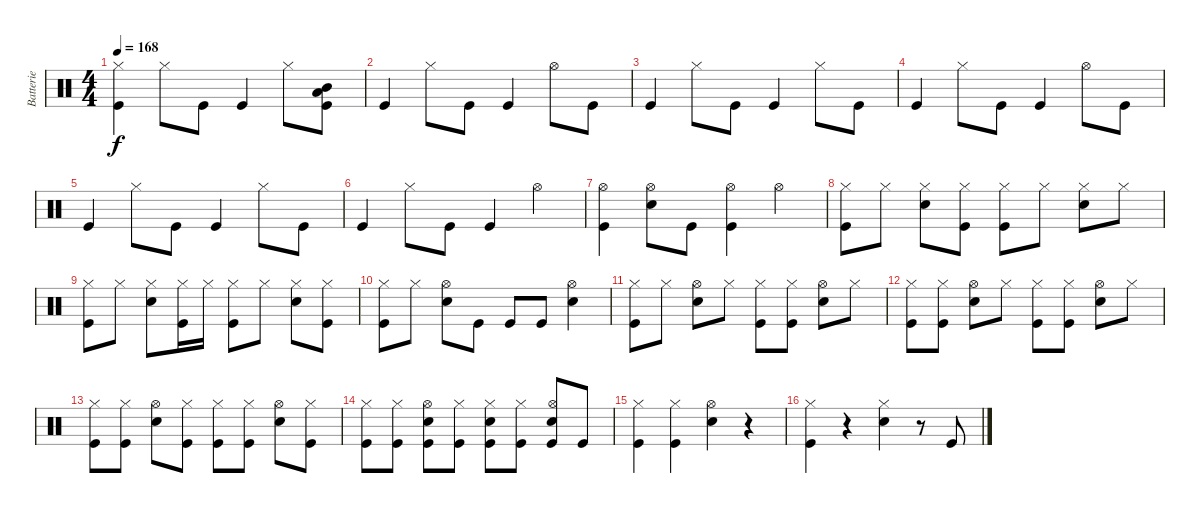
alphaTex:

\track ("Batterie" "Batterie") {instrument percussion}
\staff {score}
\articulation defaults
\ts (4 4)
\tempo 168
\clef neutral
\ks c
("Hi-Hat (closed)" "Kick (hit)").4{dy f} "Hi-Hat (closed)".8 "Kick (hit)".8 "Kick (hit)".4 "Hi-Hat (closed)".8 ("Low Tom (hit)" "Mid Tom (hit)" "Kick (hit)").8 |
"Kick (hit)".4 "Hi-Hat (closed)".8 "Kick (hit)".8 "Kick (hit)".4 "Hi-Hat (open)".8 "Kick (hit)".8 |
"Kick (hit)".4 "Hi-Hat (closed)".8 "Kick (hit)".8 "Kick (hit)".4 "Hi-Hat (closed)".8 "Kick (hit)".8 |
"Kick (hit)".4 "Hi-Hat (closed)".8 "Kick (hit)".8 "Kick (hit)".4 "Hi-Hat (open)".8 "Kick (hit)".8 |
"Kick (hit)".4 "Hi-Hat (closed)".8 "Kick (hit)".8 "Kick (hit)".4 "Hi-Hat (closed)".8 "Kick (hit)".8 |
"Kick (hit)".4 "Hi-Hat (closed)".8 "Kick (hit)".8 "Kick (hit)".4 "Hi-Hat (open)".4 |
("Hi-Hat (open)" "Kick (hit)").4 ("Hi-Hat (open)" "Snare (hit) 2").8 "Kick (hit)".8 ("Hi-Hat (open)" "Kick (hit)").4 "Hi-Hat (open)".4 |
("Hi-Hat (closed)" "Kick (hit)").8 "Hi-Hat (closed)".8 ("Hi-Hat (closed)" "Snare (hit) 2").8 ("Hi-Hat (closed)" "Kick (hit)").8 ("Hi-Hat (closed)" "Kick (hit)").8 "Hi-Hat (closed)".8 ("Hi-Hat (closed)" "Snare (hit) 2").8 "Hi-Hat (closed)".8 |
("Hi-Hat (closed)" "Kick (hit)").8 "Hi-Hat (closed)".8 ("Hi-Hat (closed)" "Snare (hit) 2").8 ("Hi-Hat (closed)" "Kick (hit)").16 "Hi-Hat (closed)".16 ("Hi-Hat (closed)" "Kick (hit)").8 "Hi-Hat (closed)".8 ("Hi-Hat (closed)" "Snare (hit) 2").8 ("Hi-Hat (closed)" "Kick (hit)").8 |
("Hi-Hat (closed)" "Kick (hit)").8 "Hi-Hat (closed)".8 ("Hi-Hat (open)" "Snare (hit) 2").8 "Kick (hit)".8 "Kick (hit)".8 "Kick (hit)".8 ("Hi-Hat (open)" "Snare (hit) 2").4 |
("Hi-Hat (closed)" "Kick (hit)").8 "Hi-Hat (closed)".8 ("Hi-Hat (open)" "Snare (hit) 2").8 "Hi-Hat (closed)".8 ("Hi-Hat (closed)" "Kick (hit)").8 ("Hi-Hat (closed)" "Kick (hit)").8 ("Hi-Hat (open)" "Snare (hit) 2").8 "Hi-Hat (closed)".8 |
("Hi-Hat (closed)" "Kick (hit)").8 ("Hi-Hat (closed)" "Kick (hit)").8 ("Hi-Hat (open)" "Snare (hit) 2").8 "Hi-Hat (closed)".8 ("Hi-Hat (closed)" "Kick (hit)").8 ("Hi-Hat (closed)" "Kick (hit)").8 ("Hi-Hat (open)" "Snare (hit) 2").8 "Hi-Hat (closed)".8 |
("Hi-Hat (closed)" "Kick (hit)").8 ("Hi-Hat (closed)" "Kick (hit)").8 ("Hi-Hat (open)" "Snare (hit) 2").8 ("Hi-Hat (closed)" "Kick (hit)").8 ("Hi-Hat (closed)" "Kick (hit)").8 ("Hi-Hat (closed)" "Kick (hit)").8 ("Hi-Hat (open)" "Snare (hit) 2").8 ("Hi-Hat (closed)" "Kick (hit)").8 |
("Hi-Hat (closed)" "Kick (hit)").8 ("Hi-Hat (closed)" "Kick (hit)").8 ("Hi-Hat (open)" "Snare (hit) 2" "Kick (hit)").8 ("Hi-Hat (closed)" "Kick (hit)").8 ("Hi-Hat (closed)" "Snare (hit) 2" "Kick (hit)").8 ("Hi-Hat (closed)" "Kick (hit)").8 ("Hi-Hat (open)" "Kick (hit)" "Snare (hit) 2").8 "Kick (hit)".8 |
("Hi-Hat (closed)" "Kick (hit)").4 ("Hi-Hat (closed)" "Kick (hit)").4 ("Hi-Hat (open)" "Snare (hit) 2").4 r.4 |
("Hi-Hat (closed)" "Kick (hit)").4 r.4 ("Hi-Hat (closed)" "Snare (hit) 2").4 r.8 "Kick (hit)".8
